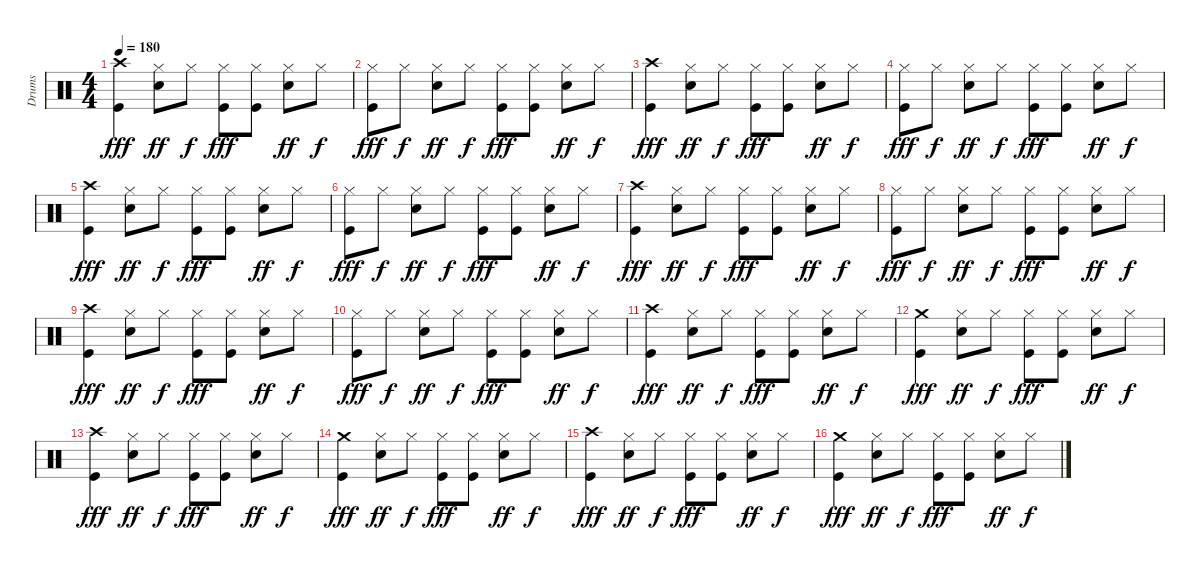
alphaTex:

\track ("Drums" "Drums") {instrument percussion}
\staff {score}
\articulation defaults
\ts (4 4)
\tempo 180
\clef neutral
\ks aminor
("Crash high (hit)" "Kick (hit)").4{dy fff} ("Hi-Hat (closed)" "Snare (hit) 2").8{dy ff} "Hi-Hat (closed)".8{dy f} ("Hi-Hat (closed)" "Kick (hit)").8{dy fff} ("Hi-Hat (closed)" "Kick (hit)").8 ("Hi-Hat (closed)" "Snare (hit) 2").8{dy ff} "Hi-Hat (closed)".8{dy f} |
("Hi-Hat (closed)" "Kick (hit)").8{dy fff} "Hi-Hat (closed)".8{dy f} ("Hi-Hat (closed)" "Snare (hit) 2").8{dy ff} "Hi-Hat (closed)".8{dy f} ("Hi-Hat (closed)" "Kick (hit)").8{dy fff} ("Hi-Hat (closed)" "Kick (hit)").8 ("Hi-Hat (closed)" "Snare (hit) 2").8{dy ff} "Hi-Hat (closed)".8{dy f} |
("Crash high (hit)" "Kick (hit)").4{dy fff} ("Hi-Hat (closed)" "Snare (hit) 2").8{dy ff} "Hi-Hat (closed)".8{dy f} ("Hi-Hat (closed)" "Kick (hit)").8{dy fff} ("Hi-Hat (closed)" "Kick (hit)").8 ("Hi-Hat (closed)" "Snare (hit) 2").8{dy ff} "Hi-Hat (closed)".8{dy f} |
("Hi-Hat (closed)" "Kick (hit)").8{dy fff} "Hi-Hat (closed)".8{dy f} ("Hi-Hat (closed)" "Snare (hit) 2").8{dy ff} "Hi-Hat (closed)".8{dy f} ("Hi-Hat (closed)" "Kick (hit)").8{dy fff} ("Hi-Hat (closed)" "Kick (hit)").8 ("Hi-Hat (closed)" "Snare (hit) 2").8{dy ff} "Hi-Hat (closed)".8{dy f} |
("Crash high (hit)" "Kick (hit)").4{dy fff} ("Hi-Hat (closed)" "Snare (hit) 2").8{dy ff} "Hi-Hat (closed)".8{dy f} ("Hi-Hat (closed)" "Kick (hit)").8{dy fff} ("Hi-Hat (closed)" "Kick (hit)").8 ("Hi-Hat (closed)" "Snare (hit) 2").8{dy ff} "Hi-Hat (closed)".8{dy f} |
("Hi-Hat (closed)" "Kick (hit)").8{dy fff} "Hi-Hat (closed)".8{dy f} ("Hi-Hat (closed)" "Snare (hit) 2").8{dy ff} "Hi-Hat (closed)".8{dy f} ("Hi-Hat (closed)" "Kick (hit)").8{dy fff} ("Hi-Hat (closed)" "Kick (hit)").8 ("Hi-Hat (closed)" "Snare (hit) 2").8{dy ff} "Hi-Hat (closed)".8{dy f} |
("Crash high (hit)" "Kick (hit)").4{dy fff} ("Hi-Hat (closed)" "Snare (hit) 2").8{dy ff} "Hi-Hat (closed)".8{dy f} ("Hi-Hat (closed)" "Kick (hit)").8{dy fff} ("Hi-Hat (closed)" "Kick (hit)").8 ("Hi-Hat (closed)" "Snare (hit) 2").8{dy ff} "Hi-Hat (closed)".8{dy f} |
("Hi-Hat (closed)" "Kick (hit)").8{dy fff} "Hi-Hat (closed)".8{dy f} ("Hi-Hat (closed)" "Snare (hit) 2").8{dy ff} "Hi-Hat (closed)".8{dy f} ("Hi-Hat (closed)" "Kick (hit)").8{dy fff} ("Hi-Hat (closed)" "Kick (hit)").8 ("Hi-Hat (closed)" "Snare (hit) 2").8{dy ff} "Hi-Hat (closed)".8{dy f} |
("Crash high (hit)" "Kick (hit)").4{dy fff} ("Hi-Hat (closed)" "Snare (hit) 2").8{dy ff} "Hi-Hat (closed)".8{dy f} ("Hi-Hat (closed)" "Kick (hit)").8{dy fff} ("Hi-Hat (closed)" "Kick (hit)").8 ("Hi-Hat (closed)" "Snare (hit) 2").8{dy ff} "Hi-Hat (closed)".8{dy f} |
("Hi-Hat (closed)" "Kick (hit)").8{dy fff} "Hi-Hat (closed)".8{dy f} ("Hi-Hat (closed)" "Snare (hit) 2").8{dy ff} "Hi-Hat (closed)".8{dy f} ("Hi-Hat (closed)" "Kick (hit)").8{dy fff} ("Hi-Hat (closed)" "Kick (hit)").8 ("Hi-Hat (closed)" "Snare (hit) 2").8{dy ff} "Hi-Hat (closed)".8{dy f} |
("Crash high (hit)" "Kick (hit)").4{dy fff} ("Hi-Hat (closed)" "Snare (hit) 2").8{dy ff} "Hi-Hat (closed)".8{dy f} ("Hi-Hat (closed)" "Kick (hit)").8{dy fff} ("Hi-Hat (closed)" "Kick (hit)").8 ("Hi-Hat (closed)" "Snare (hit) 2").8{dy ff} "Hi-Hat (closed)".8{dy f} |
("Crash medium (hit)" "Kick (hit)").4{dy fff} ("Hi-Hat (closed)" "Snare (hit) 2").8{dy ff} "Hi-Hat (closed)".8{dy f} ("Hi-Hat (closed)" "Kick (hit)").8{dy fff} ("Hi-Hat (closed)" "Kick (hit)").8 ("Hi-Hat (closed)" "Snare (hit) 2").8{dy ff} "Hi-Hat (closed)".8{dy f} |
("Crash high (hit)" "Kick (hit)").4{dy fff} ("Hi-Hat (closed)" "Snare (hit) 2").8{dy ff} "Hi-Hat (closed)".8{dy f} ("Hi-Hat (closed)" "Kick (hit)").8{dy fff} ("Hi-Hat (closed)" "Kick (hit)").8 ("Hi-Hat (closed)" "Snare (hit) 2").8{dy ff} "Hi-Hat (closed)".8{dy f} |
("Crash medium (hit)" "Kick (hit)").4{dy fff} ("Hi-Hat (closed)" "Snare (hit) 2").8{dy ff} "Hi-Hat (closed)".8{dy f} ("Hi-Hat (closed)" "Kick (hit)").8{dy fff} ("Hi-Hat (closed)" "Kick (hit)").8 ("Hi-Hat (closed)" "Snare (hit) 2").8{dy ff} "Hi-Hat (closed)".8{dy f} |
("Crash high (hit)" "Kick (hit)").4{dy fff} ("Hi-Hat (closed)" "Snare (hit) 2").8{dy ff} "Hi-Hat (closed)".8{dy f} ("Hi-Hat (closed)" "Kick (hit)").8{dy fff} ("Hi-Hat (closed)" "Kick (hit)").8 ("Hi-Hat (closed)" "Snare (hit) 2").8{dy ff} "Hi-Hat (closed)".8{dy f} |
("Crash medium (hit)" "Kick (hit)").4{dy fff} ("Hi-Hat (closed)" "Snare (hit) 2").8{dy ff} "Hi-Hat (closed)".8{dy f} ("Hi-Hat (closed)" "Kick (hit)").8{dy fff} ("Hi-Hat (closed)" "Kick (hit)").8 ("Hi-Hat (closed)" "Snare (hit) 2").8{dy ff} "Hi-Hat (closed)".8{dy f}
